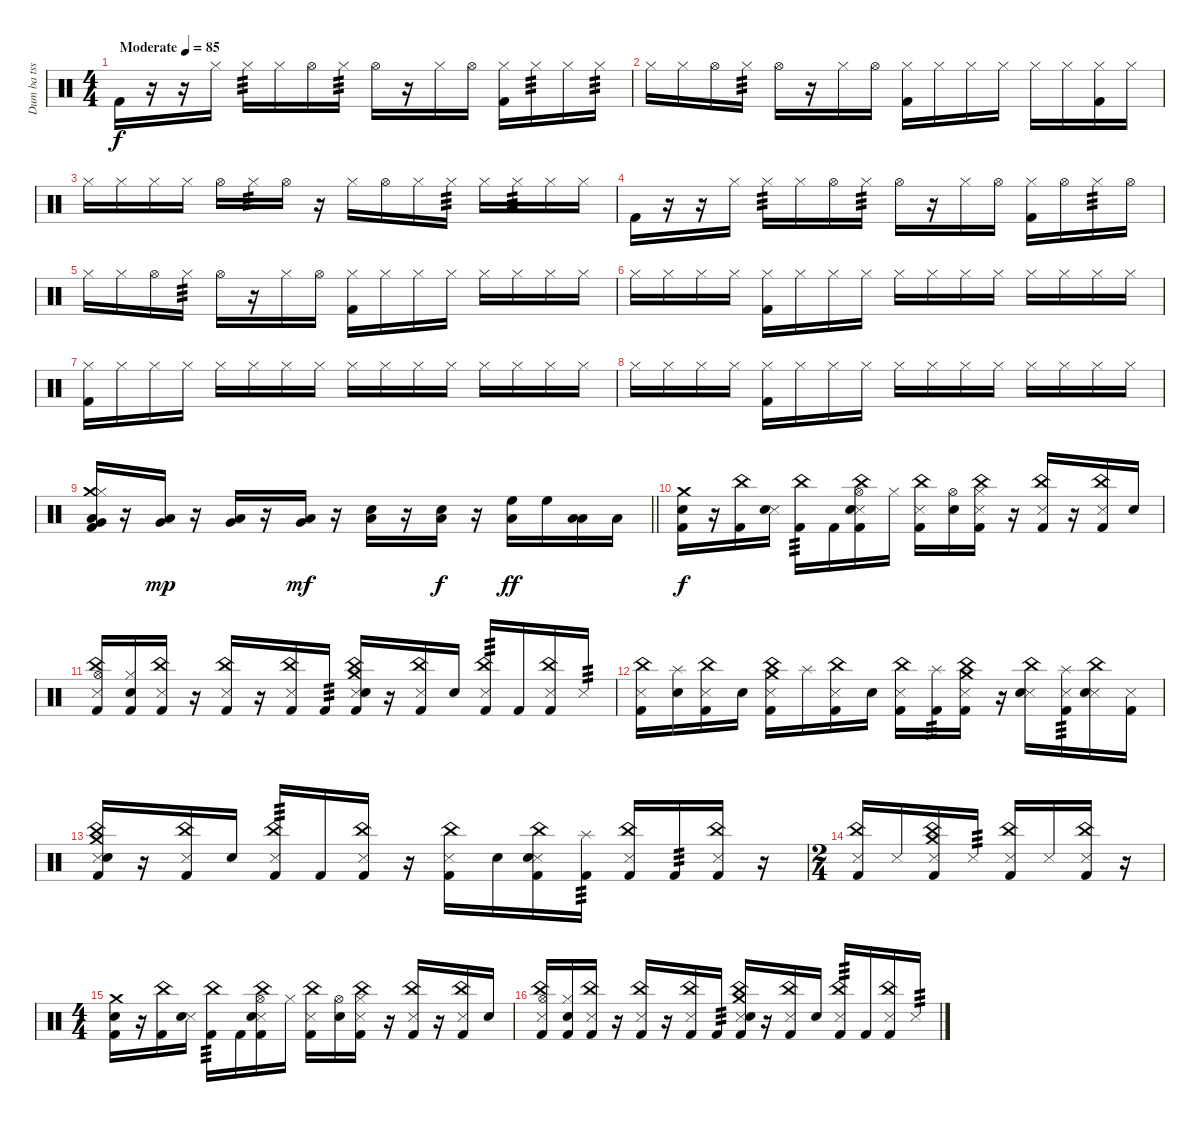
\track ("Dum ba tss" "Dum ba tss") {instrument percussion}
\staff {score}
\articulation defaults
\ts (4 4)
\tempo (85 "Moderate")
\clef neutral
\ks c "Kick (hit) 2".16{dy f}
r.16 r.16 "Hi-Hat (closed)".16 "Hi-Hat (closed)".16{tp 3} "Hi-Hat (closed)".16 "Hi-Hat (open)".16 "Hi-Hat (closed)".16{tp 3} "Hi-Hat (open)".16 r.16 "Hi-Hat (closed)".16 "Hi-Hat (open)".16 ("Hi-Hat (closed)" "Kick (hit) 2").16 "Hi-Hat (closed)".16{tp 3} "Hi-Hat (closed)".16 "Hi-Hat (closed)".16{tp 3} |
"Hi-Hat (closed)".16 "Hi-Hat (closed)".16 "Hi-Hat (open)".16 "Hi-Hat (closed)".16{tp 3} "Hi-Hat (open)".16 r.16 "Hi-Hat (closed)".16 "Hi-Hat (open)".16 ("Hi-Hat (closed)" "Kick (hit) 2").16 "Hi-Hat (closed)".16 "Hi-Hat (closed)".16 "Hi-Hat (closed)".16 "Hi-Hat (closed)".16 "Hi-Hat (closed)".16 ("Hi-Hat (closed)" "Kick (hit) 2").16 "Hi-Hat (closed)".16 |
"Hi-Hat (closed)".16 "Hi-Hat (closed)".16 "Hi-Hat (closed)".16 "Hi-Hat (closed)".16 "Hi-Hat (open)".16 "Hi-Hat (closed)".16{tp 3} "Hi-Hat (open)".16 r.16 "Hi-Hat (closed)".16 "Hi-Hat (open)".16 "Hi-Hat (closed)".16 "Hi-Hat (closed)".16{tp 3} "Hi-Hat (closed)".16 "Hi-Hat (closed)".16{tp 3} "Hi-Hat (closed)".16 "Hi-Hat (closed)".16 |
"Kick (hit) 2".16 r.16 r.16 "Hi-Hat (closed)".16 "Hi-Hat (closed)".16{tp 3} "Hi-Hat (closed)".16 "Hi-Hat (open)".16 "Hi-Hat (closed)".16{tp 3} "Hi-Hat (open)".16 r.16 "Hi-Hat (closed)".16 "Hi-Hat (open)".16 ("Hi-Hat (closed)" "Kick (hit) 2").16 "Hi-Hat (open)".16 "Hi-Hat (closed)".16{tp 3} "Hi-Hat (open)".16 |
"Hi-Hat (closed)".16 "Hi-Hat (closed)".16 "Hi-Hat (open)".16 "Hi-Hat (closed)".16{tp 3} "Hi-Hat (open)".16 r.16 "Hi-Hat (closed)".16 "Hi-Hat (open)".16 ("Hi-Hat (closed)" "Kick (hit) 2").16 "Hi-Hat (closed)".16 "Hi-Hat (closed)".16 "Hi-Hat (closed)".16 "Hi-Hat (closed)".16 "Hi-Hat (closed)".16 "Hi-Hat (closed)".16 "Hi-Hat (closed)".16 |
"Hi-Hat (closed)".16 "Hi-Hat (closed)".16 "Hi-Hat (closed)".16 "Hi-Hat (closed)".16 ("Hi-Hat (closed)" "Kick (hit) 2").16 "Hi-Hat (closed)".16 "Hi-Hat (closed)".16 "Hi-Hat (closed)".16 "Hi-Hat (closed)".16 "Hi-Hat (closed)".16 "Hi-Hat (closed)".16 "Hi-Hat (closed)".16 "Hi-Hat (closed)".16 "Hi-Hat (closed)".16 "Hi-Hat (closed)".16 "Hi-Hat (closed)".16 |
("Hi-Hat (closed)" "Kick (hit) 2").16 "Hi-Hat (closed)".16 "Hi-Hat (closed)".16 "Hi-Hat (closed)".16 "Hi-Hat (closed)".16 "Hi-Hat (closed)".16 "Hi-Hat (closed)".16 "Hi-Hat (closed)".16 "Hi-Hat (closed)".16 "Hi-Hat (closed)".16 "Hi-Hat (closed)".16 "Hi-Hat (closed)".16 "Hi-Hat (closed)".16 "Hi-Hat (closed)".16 "Hi-Hat (closed)".16 "Hi-Hat (closed)".16 |
"Hi-Hat (closed)".16 "Hi-Hat (closed)".16 "Hi-Hat (closed)".16 "Hi-Hat (closed)".16 ("Hi-Hat (closed)" "Kick (hit) 2").16 "Hi-Hat (closed)".16 "Hi-Hat (closed)".16 "Hi-Hat (closed)".16 "Hi-Hat (closed)".16 "Hi-Hat (closed)".16 "Hi-Hat (closed)".16 "Hi-Hat (closed)".16 "Hi-Hat (closed)".16 "Hi-Hat (closed)".16 "Hi-Hat (closed)".16 "Hi-Hat (closed)".16 |
\barLineRight lightlight
("Crash medium (hit)" "Hi-Hat (closed)" "Low Tom (hit)" "Very Low Tom (hit)" "Kick (hit) 2").16 r.16 ("Very Low Tom (hit)" "Low Tom (hit)").16{dy mp} r.16 ("Very Low Tom (hit)" "Low Tom (hit)").16 r.16 ("Very Low Tom (hit)" "Low Tom (hit)").16{dy mf} r.16 ("Electric Snare (hit)" "Low Tom (hit)").16 r.16 ("Electric Snare (hit)" "Low Tom (hit)").16{dy f} r.16 ("High Floor Tom (hit)" "Low Tom (hit)").16{dy ff} "High Floor Tom (hit)".16 ("Low Tom (hit)" "Low Tom (hit)").16 "Low Tom (hit)".16 |
\section ("" "")
("Crash medium (hit)" "Electric Snare (hit)" "Kick (hit) 2").16{dy f} r.16 ("China (hit)" "Kick (hit) 2").16 ("Snare (side stick) 3" "Electric Snare (hit)").16 ("China (hit)" "Kick (hit) 2").16{tp 3} "Kick (hit) 2".16 ("Hi-Hat (open)" "China (hit)" "Snare (side stick) 3" "Electric Snare (hit)" "Kick (hit) 2").16 "Hi-Hat (closed)".16 ("China (hit)" "Snare (side stick) 3" "Kick (hit) 2").16 ("Hi-Hat (open)" "Electric Snare (hit)").16 ("Hi-Hat (closed)" "China (hit)" "Snare (side stick) 3" "Kick (hit) 2").16 r.16 ("China (hit)" "Snare (side stick) 3" "Kick (hit) 2").16 r.16 ("China (hit)" "Snare (side stick) 3" "Kick (hit) 2").16 "Electric Snare (hit)".16 |
("China (hit)" "Hi-Hat (open)" "Snare (side stick) 3" "Kick (hit) 2").16 ("Hi-Hat (closed)" "Electric Snare (hit)" "Kick (hit) 2").16 ("China (hit)" "Snare (side stick) 3" "Kick (hit) 2").16 r.16 ("China (hit)" "Snare (side stick) 3" "Kick (hit) 2").16 r.16 ("China (hit)" "Snare (side stick) 3" "Kick (hit) 2").16 "Kick (hit) 2".16{tp 3} ("Crash medium (hit)" "China (hit)" "Snare (side stick) 3" "Electric Snare (hit)" "Kick (hit) 2").16 r.16 ("China (hit)" "Snare (side stick) 3" "Kick (hit) 2").16 "Electric Snare (hit)".16 ("China (hit)" "Snare (side stick) 3" "Kick (hit) 2").16{tp 3} "Kick (hit) 2".16 ("China (hit)" "Snare (side stick) 3" "Kick (hit) 2").16 "Snare (side stick) 3".16{tp 3} |
("China (hit)" "Snare (side stick) 3" "Kick (hit) 2").16 ("Splash (hit)" "Electric Snare (hit)").16 ("China (hit)" "Snare (side stick) 3" "Kick (hit) 2").16 "Electric Snare (hit)".16 ("Crash medium (hit)" "China (hit)" "Snare (side stick) 3" "Kick (hit) 2").16 "Splash (hit)".16 ("China (hit)" "Snare (side stick) 3" "Kick (hit) 2").16 "Electric Snare (hit)".16 ("China (hit)" "Snare (side stick) 3" "Kick (hit) 2").16 ("Splash (hit)" "Kick (hit) 2").16{tp 3} ("Crash medium (hit)" "China (hit)" "Snare (side stick) 3" "Kick (hit) 2").16 r.16 ("China (hit)" "Snare (side stick) 3" "Electric Snare (hit)").16 ("Splash (hit)" "Snare (side stick) 3" "Kick (hit) 2").16{tp 3} ("China (hit)" "Snare (side stick) 3" "Electric Snare (hit)").16 ("Snare (side stick) 3" "Kick (hit) 2").16 |
("Snare (side stick) 3" "China (hit)" "Crash medium (hit)" "Electric Snare (hit)" "Kick (hit) 2").16 r.16 ("Snare (side stick) 3" "China (hit)" "Kick (hit) 2").16 "Electric Snare (hit)".16 ("Snare (side stick) 3" "China (hit)" "Kick (hit) 2").16{tp 3} "Kick (hit) 2".16 ("Snare (side stick) 3" "China (hit)" "Kick (hit) 2").16 r.16 ("Snare (side stick) 3" "China (hit)" "Kick (hit) 2").16 "Electric Snare (hit)".16 ("Snare (side stick) 3" "China (hit)" "Electric Snare (hit)" "Kick (hit) 2").16 ("Splash (hit)" "Kick (hit) 2").16{tp 3} ("Snare (side stick) 3" "China (hit)" "Kick (hit) 2").16 "Kick (hit) 2".16{tp 3} ("Snare (side stick) 3" "China (hit)" "Kick (hit) 2").16 r.16 |
\ts (2 4)
("Snare (side stick) 3" "China (hit)" "Kick (hit) 2").16 "Snare (side stick) 3".16 ("Snare (side stick) 3" "China (hit)" "Crash medium (hit)" "Kick (hit) 2").16 "Snare (side stick) 3".16{tp 3} ("Snare (side stick) 3" "China (hit)" "Kick (hit) 2").16 "Snare (side stick) 3".16 ("Snare (side stick) 3" "China (hit)" "Kick (hit) 2").16 r.16 |
\ts (4 4)
("Crash medium (hit)" "Electric Snare (hit)" "Kick (hit) 2").16 r.16 ("China (hit)" "Kick (hit) 2").16 ("Snare (side stick) 3" "Electric Snare (hit)").16 ("China (hit)" "Kick (hit) 2").16{tp 3} "Kick (hit) 2".16 ("Hi-Hat (open)" "China (hit)" "Snare (side stick) 3" "Electric Snare (hit)" "Kick (hit) 2").16 "Hi-Hat (closed)".16 ("China (hit)" "Snare (side stick) 3" "Kick (hit) 2").16 ("Hi-Hat (open)" "Electric Snare (hit)").16 ("Hi-Hat (closed)" "China (hit)" "Snare (side stick) 3" "Kick (hit) 2").16 r.16 ("China (hit)" "Snare (side stick) 3" "Kick (hit) 2").16 r.16 ("China (hit)" "Snare (side stick) 3" "Kick (hit) 2").16 "Electric Snare (hit)".16 |
("China (hit)" "Hi-Hat (open)" "Snare (side stick) 3" "Kick (hit) 2").16 ("Hi-Hat (closed)" "Electric Snare (hit)" "Kick (hit) 2").16 ("China (hit)" "Snare (side stick) 3" "Kick (hit) 2").16 r.16 ("China (hit)" "Snare (side stick) 3" "Kick (hit) 2").16 r.16 ("China (hit)" "Snare (side stick) 3" "Kick (hit) 2").16 "Kick (hit) 2".16{tp 3} ("Crash medium (hit)" "China (hit)" "Snare (side stick) 3" "Electric Snare (hit)" "Kick (hit) 2").16 r.16 ("China (hit)" "Snare (side stick) 3" "Kick (hit) 2").16 "Electric Snare (hit)".16 ("China (hit)" "Snare (side stick) 3" "Kick (hit) 2").16{tp 3} "Kick (hit) 2".16 ("China (hit)" "Snare (side stick) 3" "Kick (hit) 2").16 "Snare (side stick) 3".16{tp 3}
